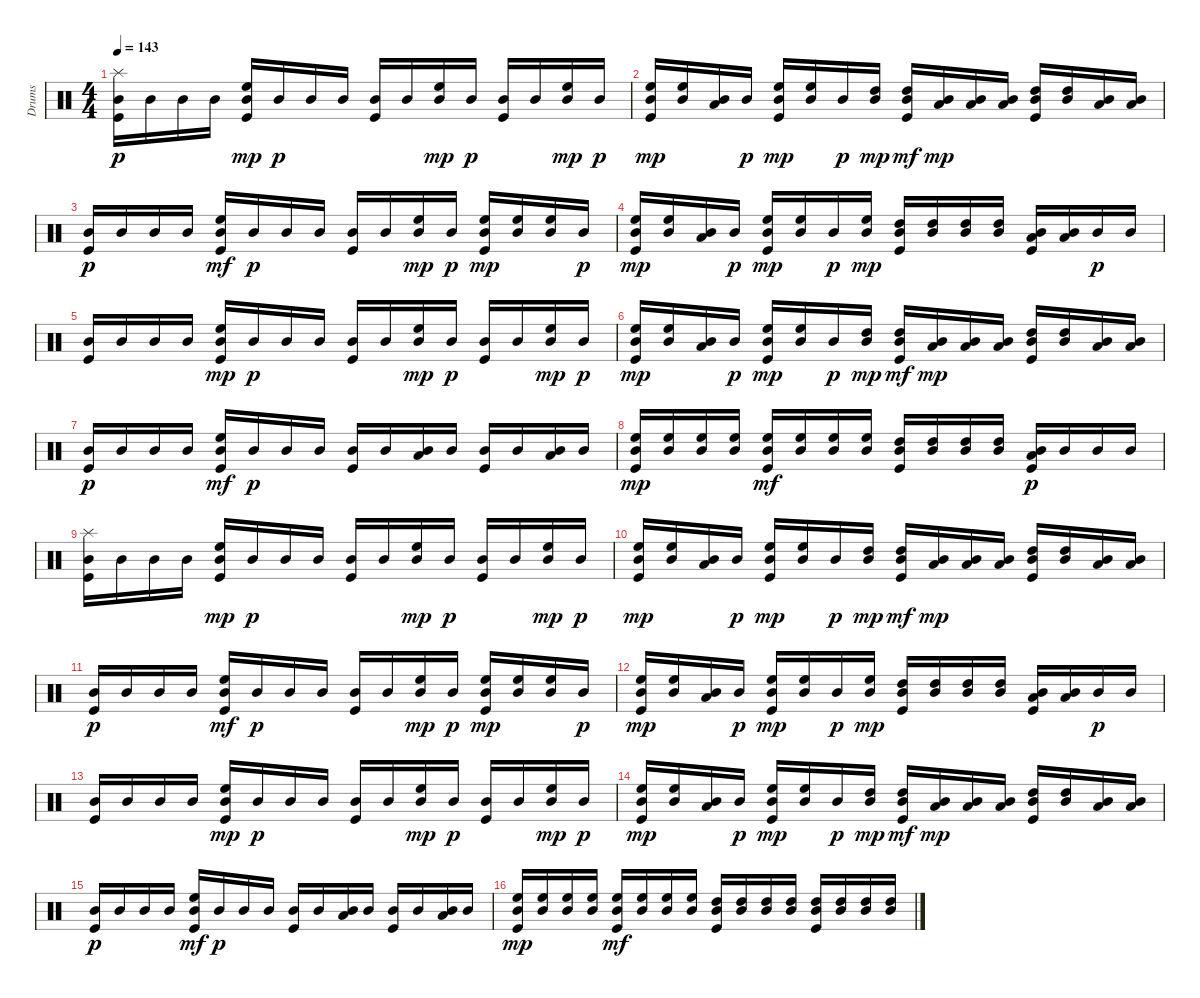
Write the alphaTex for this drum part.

\track ("Drums" "Drums") {instrument percussion}
\staff {score}
\articulation defaults
\ts (4 4)
\tempo 143
\clef neutral
\ks c
("Kick (hit)" "Mid Tom (hit)" "Splash (hit)").16{dy p} "Mid Tom (hit)".16 "Mid Tom (hit)".16 "Mid Tom (hit)".16 ("Kick (hit)" "Mid Tom (hit)" "High Floor Tom (hit)").16{dy mp} "Mid Tom (hit)".16{dy p} "Mid Tom (hit)".16 "Mid Tom (hit)".16 ("Kick (hit)" "Mid Tom (hit)").16 "Mid Tom (hit)".16 ("Mid Tom (hit)" "High Floor Tom (hit)").16{dy mp} "Mid Tom (hit)".16{dy p} ("Kick (hit)" "Mid Tom (hit)").16 "Mid Tom (hit)".16 ("Mid Tom (hit)" "High Floor Tom (hit)").16{dy mp} "Mid Tom (hit)".16{dy p} |
("Kick (hit)" "Mid Tom (hit)" "High Floor Tom (hit)").16{dy mp} ("Mid Tom (hit)" "High Floor Tom (hit)").16 ("Mid Tom (hit)" "Low Tom (hit)").16 "Mid Tom (hit)".16{dy p} ("Kick (hit)" "Mid Tom (hit)" "High Floor Tom (hit)").16{dy mp} ("Mid Tom (hit)" "High Floor Tom (hit)").16 "Mid Tom (hit)".16{dy p} ("Mid Tom (hit)" "High Tom (hit)").16{dy mp} ("Kick (hit)" "Mid Tom (hit)" "High Tom (hit)").16{dy mf} ("Mid Tom (hit)" "Low Tom (hit)").16{dy mp} ("Mid Tom (hit)" "Low Tom (hit)").16 ("Mid Tom (hit)" "Low Tom (hit)").16 ("Kick (hit)" "Mid Tom (hit)" "High Tom (hit)").16 ("Mid Tom (hit)" "High Tom (hit)").16 ("Mid Tom (hit)" "Low Tom (hit)").16 ("Mid Tom (hit)" "Low Tom (hit)").16 |
("Kick (hit)" "Mid Tom (hit)").16{dy p} "Mid Tom (hit)".16 "Mid Tom (hit)".16 "Mid Tom (hit)".16 ("Kick (hit)" "Mid Tom (hit)" "High Floor Tom (hit)").16{dy mf} "Mid Tom (hit)".16{dy p} "Mid Tom (hit)".16 "Mid Tom (hit)".16 ("Kick (hit)" "Mid Tom (hit)").16 "Mid Tom (hit)".16 ("Mid Tom (hit)" "High Floor Tom (hit)").16{dy mp} "Mid Tom (hit)".16{dy p} ("Kick (hit)" "Mid Tom (hit)" "High Floor Tom (hit)").16{dy mp} ("Mid Tom (hit)" "High Floor Tom (hit)").16 ("Mid Tom (hit)" "High Floor Tom (hit)").16 "Mid Tom (hit)".16{dy p} |
("Kick (hit)" "Mid Tom (hit)" "High Floor Tom (hit)").16{dy mp} ("Mid Tom (hit)" "High Floor Tom (hit)").16 ("Mid Tom (hit)" "Low Tom (hit)").16 "Mid Tom (hit)".16{dy p} ("Kick (hit)" "Mid Tom (hit)" "High Floor Tom (hit)").16{dy mp} ("Mid Tom (hit)" "High Floor Tom (hit)").16 "Mid Tom (hit)".16{dy p} ("Mid Tom (hit)" "High Floor Tom (hit)").16{dy mp} ("Kick (hit)" "Mid Tom (hit)" "High Tom (hit)").16 ("Mid Tom (hit)" "High Tom (hit)").16 ("Mid Tom (hit)" "High Tom (hit)").16 ("Mid Tom (hit)" "High Tom (hit)").16 ("Kick (hit)" "Mid Tom (hit)" "Low Tom (hit)").16 ("Mid Tom (hit)" "Low Tom (hit)").16 "Mid Tom (hit)".16{dy p} "Mid Tom (hit)".16 |
("Kick (hit)" "Mid Tom (hit)").16 "Mid Tom (hit)".16 "Mid Tom (hit)".16 "Mid Tom (hit)".16 ("Kick (hit)" "Mid Tom (hit)" "High Floor Tom (hit)").16{dy mp} "Mid Tom (hit)".16{dy p} "Mid Tom (hit)".16 "Mid Tom (hit)".16 ("Kick (hit)" "Mid Tom (hit)").16 "Mid Tom (hit)".16 ("Mid Tom (hit)" "High Floor Tom (hit)").16{dy mp} "Mid Tom (hit)".16{dy p} ("Kick (hit)" "Mid Tom (hit)").16 "Mid Tom (hit)".16 ("Mid Tom (hit)" "High Floor Tom (hit)").16{dy mp} "Mid Tom (hit)".16{dy p} |
("Kick (hit)" "Mid Tom (hit)" "High Floor Tom (hit)").16{dy mp} ("Mid Tom (hit)" "High Floor Tom (hit)").16 ("Mid Tom (hit)" "Low Tom (hit)").16 "Mid Tom (hit)".16{dy p} ("Kick (hit)" "Mid Tom (hit)" "High Floor Tom (hit)").16{dy mp} ("Mid Tom (hit)" "High Floor Tom (hit)").16 "Mid Tom (hit)".16{dy p} ("Mid Tom (hit)" "High Tom (hit)").16{dy mp} ("Kick (hit)" "Mid Tom (hit)" "High Tom (hit)").16{dy mf} ("Mid Tom (hit)" "Low Tom (hit)").16{dy mp} ("Mid Tom (hit)" "Low Tom (hit)").16 ("Mid Tom (hit)" "Low Tom (hit)").16 ("Kick (hit)" "Mid Tom (hit)" "High Tom (hit)").16 ("Mid Tom (hit)" "High Tom (hit)").16 ("Mid Tom (hit)" "Low Tom (hit)").16 ("Mid Tom (hit)" "Low Tom (hit)").16 |
("Kick (hit)" "Mid Tom (hit)").16{dy p} "Mid Tom (hit)".16 "Mid Tom (hit)".16 "Mid Tom (hit)".16 ("Kick (hit)" "Mid Tom (hit)" "High Floor Tom (hit)").16{dy mf} "Mid Tom (hit)".16{dy p} "Mid Tom (hit)".16 "Mid Tom (hit)".16 ("Kick (hit)" "Mid Tom (hit)").16 "Mid Tom (hit)".16 ("Mid Tom (hit)" "Low Tom (hit)").16 "Mid Tom (hit)".16 ("Kick (hit)" "Mid Tom (hit)").16 "Mid Tom (hit)".16 ("Mid Tom (hit)" "Low Tom (hit)").16 "Mid Tom (hit)".16 |
("Kick (hit)" "Mid Tom (hit)" "High Floor Tom (hit)").16{dy mp} ("Mid Tom (hit)" "High Floor Tom (hit)").16 ("Mid Tom (hit)" "High Floor Tom (hit)").16 ("Mid Tom (hit)" "High Floor Tom (hit)").16 ("Kick (hit)" "Mid Tom (hit)" "High Floor Tom (hit)").16{dy mf} ("Mid Tom (hit)" "High Floor Tom (hit)").16 ("Mid Tom (hit)" "High Floor Tom (hit)").16 ("Mid Tom (hit)" "High Floor Tom (hit)").16 ("Kick (hit)" "Mid Tom (hit)" "High Tom (hit)").16 ("Mid Tom (hit)" "High Tom (hit)").16 ("Mid Tom (hit)" "High Tom (hit)").16 ("Mid Tom (hit)" "High Tom (hit)").16 ("Kick (hit)" "Mid Tom (hit)" "Low Tom (hit)").16{dy p} "Mid Tom (hit)".16 "Mid Tom (hit)".16 "Mid Tom (hit)".16 |
("Kick (hit)" "Mid Tom (hit)" "Splash (hit)").16 "Mid Tom (hit)".16 "Mid Tom (hit)".16 "Mid Tom (hit)".16 ("Kick (hit)" "Mid Tom (hit)" "High Floor Tom (hit)").16{dy mp} "Mid Tom (hit)".16{dy p} "Mid Tom (hit)".16 "Mid Tom (hit)".16 ("Kick (hit)" "Mid Tom (hit)").16 "Mid Tom (hit)".16 ("Mid Tom (hit)" "High Floor Tom (hit)").16{dy mp} "Mid Tom (hit)".16{dy p} ("Kick (hit)" "Mid Tom (hit)").16 "Mid Tom (hit)".16 ("Mid Tom (hit)" "High Floor Tom (hit)").16{dy mp} "Mid Tom (hit)".16{dy p} |
("Kick (hit)" "Mid Tom (hit)" "High Floor Tom (hit)").16{dy mp} ("Mid Tom (hit)" "High Floor Tom (hit)").16 ("Mid Tom (hit)" "Low Tom (hit)").16 "Mid Tom (hit)".16{dy p} ("Kick (hit)" "Mid Tom (hit)" "High Floor Tom (hit)").16{dy mp} ("Mid Tom (hit)" "High Floor Tom (hit)").16 "Mid Tom (hit)".16{dy p} ("Mid Tom (hit)" "High Tom (hit)").16{dy mp} ("Kick (hit)" "Mid Tom (hit)" "High Tom (hit)").16{dy mf} ("Mid Tom (hit)" "Low Tom (hit)").16{dy mp} ("Mid Tom (hit)" "Low Tom (hit)").16 ("Mid Tom (hit)" "Low Tom (hit)").16 ("Kick (hit)" "Mid Tom (hit)" "High Tom (hit)").16 ("Mid Tom (hit)" "High Tom (hit)").16 ("Mid Tom (hit)" "Low Tom (hit)").16 ("Mid Tom (hit)" "Low Tom (hit)").16 |
("Kick (hit)" "Mid Tom (hit)").16{dy p} "Mid Tom (hit)".16 "Mid Tom (hit)".16 "Mid Tom (hit)".16 ("Kick (hit)" "Mid Tom (hit)" "High Floor Tom (hit)").16{dy mf} "Mid Tom (hit)".16{dy p} "Mid Tom (hit)".16 "Mid Tom (hit)".16 ("Kick (hit)" "Mid Tom (hit)").16 "Mid Tom (hit)".16 ("Mid Tom (hit)" "High Floor Tom (hit)").16{dy mp} "Mid Tom (hit)".16{dy p} ("Kick (hit)" "Mid Tom (hit)" "High Floor Tom (hit)").16{dy mp} ("Mid Tom (hit)" "High Floor Tom (hit)").16 ("Mid Tom (hit)" "High Floor Tom (hit)").16 "Mid Tom (hit)".16{dy p} |
("Kick (hit)" "Mid Tom (hit)" "High Floor Tom (hit)").16{dy mp} ("Mid Tom (hit)" "High Floor Tom (hit)").16 ("Mid Tom (hit)" "Low Tom (hit)").16 "Mid Tom (hit)".16{dy p} ("Kick (hit)" "Mid Tom (hit)" "High Floor Tom (hit)").16{dy mp} ("Mid Tom (hit)" "High Floor Tom (hit)").16 "Mid Tom (hit)".16{dy p} ("Mid Tom (hit)" "High Floor Tom (hit)").16{dy mp} ("Kick (hit)" "Mid Tom (hit)" "High Tom (hit)").16 ("Mid Tom (hit)" "High Tom (hit)").16 ("Mid Tom (hit)" "High Tom (hit)").16 ("Mid Tom (hit)" "High Tom (hit)").16 ("Kick (hit)" "Mid Tom (hit)" "Low Tom (hit)").16 ("Mid Tom (hit)" "Low Tom (hit)").16 "Mid Tom (hit)".16{dy p} "Mid Tom (hit)".16 |
("Kick (hit)" "Mid Tom (hit)").16 "Mid Tom (hit)".16 "Mid Tom (hit)".16 "Mid Tom (hit)".16 ("Kick (hit)" "Mid Tom (hit)" "High Floor Tom (hit)").16{dy mp} "Mid Tom (hit)".16{dy p} "Mid Tom (hit)".16 "Mid Tom (hit)".16 ("Kick (hit)" "Mid Tom (hit)").16 "Mid Tom (hit)".16 ("Mid Tom (hit)" "High Floor Tom (hit)").16{dy mp} "Mid Tom (hit)".16{dy p} ("Kick (hit)" "Mid Tom (hit)").16 "Mid Tom (hit)".16 ("Mid Tom (hit)" "High Floor Tom (hit)").16{dy mp} "Mid Tom (hit)".16{dy p} |
("Kick (hit)" "Mid Tom (hit)" "High Floor Tom (hit)").16{dy mp} ("Mid Tom (hit)" "High Floor Tom (hit)").16 ("Mid Tom (hit)" "Low Tom (hit)").16 "Mid Tom (hit)".16{dy p} ("Kick (hit)" "Mid Tom (hit)" "High Floor Tom (hit)").16{dy mp} ("Mid Tom (hit)" "High Floor Tom (hit)").16 "Mid Tom (hit)".16{dy p} ("Mid Tom (hit)" "High Tom (hit)").16{dy mp} ("Kick (hit)" "Mid Tom (hit)" "High Tom (hit)").16{dy mf} ("Mid Tom (hit)" "Low Tom (hit)").16{dy mp} ("Mid Tom (hit)" "Low Tom (hit)").16 ("Mid Tom (hit)" "Low Tom (hit)").16 ("Kick (hit)" "Mid Tom (hit)" "High Tom (hit)").16 ("Mid Tom (hit)" "High Tom (hit)").16 ("Mid Tom (hit)" "Low Tom (hit)").16 ("Mid Tom (hit)" "Low Tom (hit)").16 |
("Kick (hit)" "Mid Tom (hit)").16{dy p} "Mid Tom (hit)".16 "Mid Tom (hit)".16 "Mid Tom (hit)".16 ("Kick (hit)" "Mid Tom (hit)" "High Floor Tom (hit)").16{dy mf} "Mid Tom (hit)".16{dy p} "Mid Tom (hit)".16 "Mid Tom (hit)".16 ("Kick (hit)" "Mid Tom (hit)").16 "Mid Tom (hit)".16 ("Mid Tom (hit)" "Low Tom (hit)").16 "Mid Tom (hit)".16 ("Kick (hit)" "Mid Tom (hit)").16 "Mid Tom (hit)".16 ("Mid Tom (hit)" "Low Tom (hit)").16 "Mid Tom (hit)".16 |
("Kick (hit)" "Mid Tom (hit)" "High Floor Tom (hit)").16{dy mp} ("Mid Tom (hit)" "High Floor Tom (hit)").16 ("Mid Tom (hit)" "High Floor Tom (hit)").16 ("Mid Tom (hit)" "High Floor Tom (hit)").16 ("Kick (hit)" "Mid Tom (hit)" "High Floor Tom (hit)").16{dy mf} ("Mid Tom (hit)" "High Floor Tom (hit)").16 ("Mid Tom (hit)" "High Floor Tom (hit)").16 ("Mid Tom (hit)" "High Floor Tom (hit)").16 ("Kick (hit)" "Mid Tom (hit)" "High Tom (hit)").16 ("Mid Tom (hit)" "High Tom (hit)").16 ("Mid Tom (hit)" "High Tom (hit)").16 ("Mid Tom (hit)" "High Tom (hit)").16 ("Kick (hit)" "Mid Tom (hit)" "High Tom (hit)").16 ("Mid Tom (hit)" "High Tom (hit)").16 ("Mid Tom (hit)" "High Tom (hit)").16 ("Mid Tom (hit)" "High Tom (hit)").16
